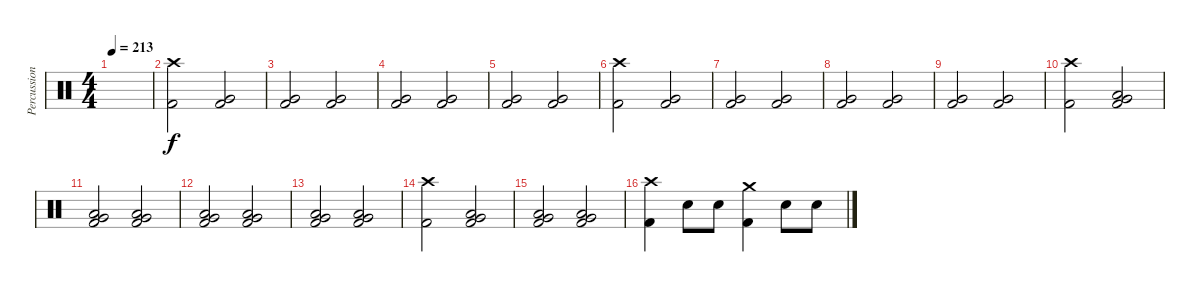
\track ("Percussion" "Percussion") {instrument percussion}
\staff {score}
\articulation defaults
\ts (4 4)
\tempo 213
\clef neutral
\ks c
|
("Crash high (hit)" "Kick (hit) 2").2 ("Very Low Tom (hit)" "Kick (hit) 2").2 |
("Very Low Tom (hit)" "Kick (hit) 2").2 ("Very Low Tom (hit)" "Kick (hit) 2").2 |
("Very Low Tom (hit)" "Kick (hit) 2").2 ("Very Low Tom (hit)" "Kick (hit) 2").2 |
("Very Low Tom (hit)" "Kick (hit) 2").2 ("Very Low Tom (hit)" "Kick (hit) 2").2 |
("Crash high (hit)" "Kick (hit) 2").2 ("Very Low Tom (hit)" "Kick (hit) 2").2 |
("Very Low Tom (hit)" "Kick (hit) 2").2 ("Very Low Tom (hit)" "Kick (hit) 2").2 |
("Very Low Tom (hit)" "Kick (hit) 2").2 ("Very Low Tom (hit)" "Kick (hit) 2").2 |
("Very Low Tom (hit)" "Kick (hit) 2").2 ("Very Low Tom (hit)" "Kick (hit) 2").2 |
("Crash high (hit)" "Kick (hit) 2").2 ("Low Tom (hit)" "Very Low Tom (hit)" "Kick (hit) 2").2 |
("Low Tom (hit)" "Very Low Tom (hit)" "Kick (hit) 2").2 ("Low Tom (hit)" "Very Low Tom (hit)" "Kick (hit) 2").2 |
("Low Tom (hit)" "Very Low Tom (hit)" "Kick (hit) 2").2 ("Low Tom (hit)" "Very Low Tom (hit)" "Kick (hit) 2").2 |
("Low Tom (hit)" "Very Low Tom (hit)" "Kick (hit) 2").2 ("Low Tom (hit)" "Very Low Tom (hit)" "Kick (hit) 2").2 |
("Crash high (hit)" "Kick (hit) 2").2 ("Low Tom (hit)" "Very Low Tom (hit)" "Kick (hit) 2").2 |
("Low Tom (hit)" "Very Low Tom (hit)" "Kick (hit) 2").2 ("Low Tom (hit)" "Very Low Tom (hit)" "Kick (hit) 2").2 |
("Crash high (hit)" "Kick (hit) 2").4 "Electric Snare (hit)".8 "Electric Snare (hit)".8 ("Crash medium (hit)" "Kick (hit) 2").4 "Electric Snare (hit)".8 "Electric Snare (hit)".8
